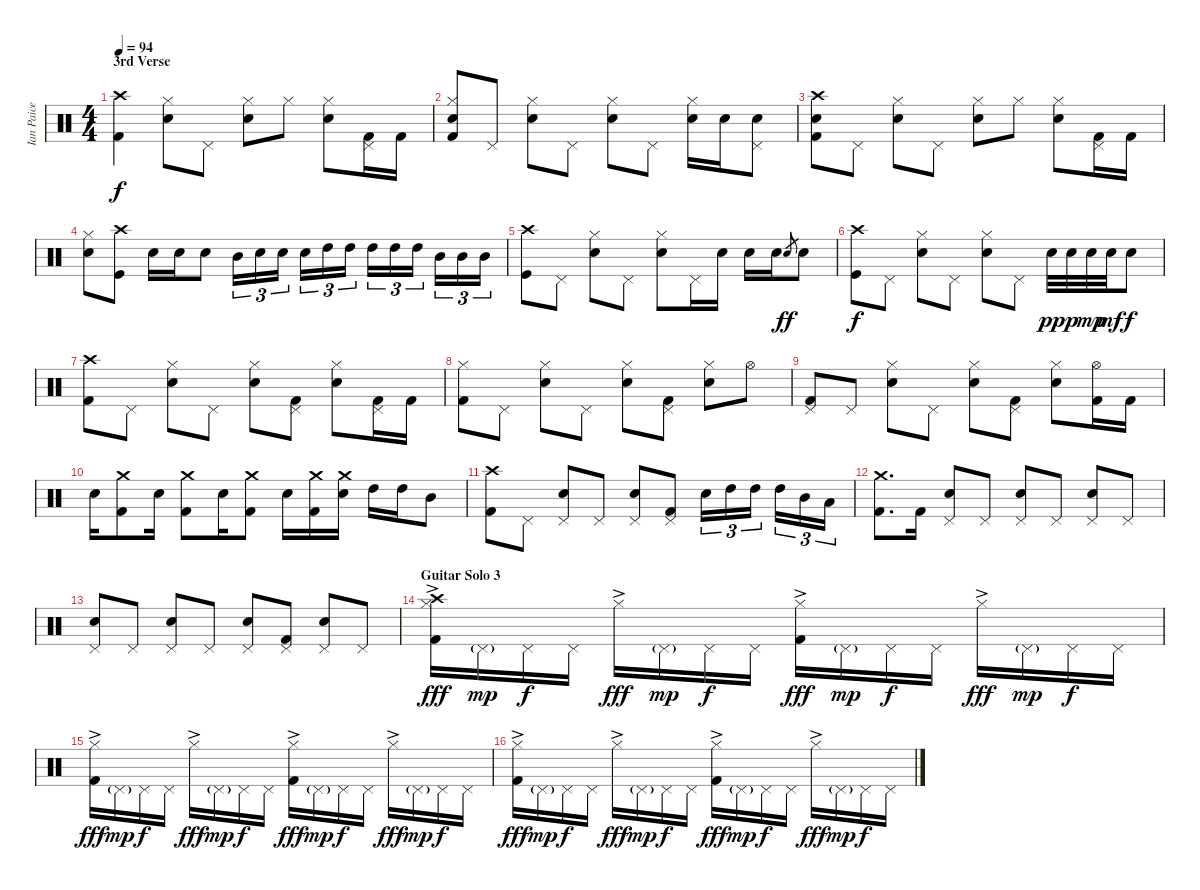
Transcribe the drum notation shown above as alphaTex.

\track ("Ian Paice (Drums)" "Ian Paice ") {instrument percussion}
\staff {score}
\articulation defaults
\ts (4 4)
\section ("" "3rd Verse")
\tempo 94
\clef neutral
\ks c
("Crash high (hit)" "Kick (hit) 2").4{dy f} ("Hi-Hat (closed)" "Electric Snare (hit)").8 "Pedal Hi-Hat (hit)".8 ("Hi-Hat (closed)" "Electric Snare (hit)").8 "Hi-Hat (closed)".8 ("Hi-Hat (closed)" "Electric Snare (hit)").8 ("Pedal Hi-Hat (hit)" "Kick (hit) 2").16 "Kick (hit) 2".16 |
("Hi-Hat (closed)" "Electric Snare (hit)" "Kick (hit) 2").8 "Pedal Hi-Hat (hit)".8 ("Hi-Hat (closed)" "Electric Snare (hit)").8 "Pedal Hi-Hat (hit)".8 ("Hi-Hat (closed)" "Electric Snare (hit)").8 "Pedal Hi-Hat (hit)".8 ("Hi-Hat (closed)" "Electric Snare (hit)").16 "Electric Snare (hit)".16 ("Pedal Hi-Hat (hit)" "Electric Snare (hit)").8 |
("Crash high (hit)" "Electric Snare (hit)" "Kick (hit) 2").8 "Pedal Hi-Hat (hit)".8 ("Hi-Hat (closed)" "Electric Snare (hit)").8 "Pedal Hi-Hat (hit)".8 ("Hi-Hat (closed)" "Electric Snare (hit)").8 "Hi-Hat (closed)".8 ("Hi-Hat (closed)" "Electric Snare (hit)").8 ("Pedal Hi-Hat (hit)" "Kick (hit) 2").16 "Kick (hit) 2".16 |
("Hi-Hat (closed)" "Electric Snare (hit)").8 ("Crash high (hit)" "Kick (hit)").8 "Electric Snare (hit)".16 "Electric Snare (hit)".16 "Electric Snare (hit)".8 "Mid Tom (hit)".16{tu (3 2)} "Electric Snare (hit)".16{tu (3 2)} "Electric Snare (hit)".16{tu (3 2)} "Electric Snare (hit)".16{tu (3 2)} "High Tom (hit)".16{tu (3 2)} "High Tom (hit)".16{tu (3 2)} "High Tom (hit)".16{tu (3 2)} "High Tom (hit)".16{tu (3 2)} "High Tom (hit)".16{tu (3 2)} "Mid Tom (hit)".16{tu (3 2)} "Mid Tom (hit)".16{tu (3 2)} "Mid Tom (hit)".16{tu (3 2)} |
("Crash high (hit)" "Kick (hit)").8 "Pedal Hi-Hat (hit)".8 ("Hi-Hat (closed)" "Electric Snare (hit)").8 "Pedal Hi-Hat (hit)".8 ("Hi-Hat (closed)" "Electric Snare (hit)").8 "Pedal Hi-Hat (hit)".16 "Electric Snare (hit)".16 "Electric Snare (hit)".16 "Electric Snare (hit)".16 "Electric Snare (hit)".8{gr dy ff} "Electric Snare (hit)".8 |
("Crash high (hit)" "Kick (hit)").8{dy f} "Pedal Hi-Hat (hit)".8 ("Hi-Hat (closed)" "Electric Snare (hit)").8 "Pedal Hi-Hat (hit)".8 ("Hi-Hat (closed)" "Electric Snare (hit)").8 "Pedal Hi-Hat (hit)".8 "Electric Snare (hit)".32{dy pp} "Electric Snare (hit)".32{dy p} "Electric Snare (hit)".32{dy mp} "Electric Snare (hit)".32{dy mf} "Electric Snare (hit)".8{dy f} |
("Crash high (hit)" "Kick (hit) 2").8 "Pedal Hi-Hat (hit)".8 ("Hi-Hat (closed)" "Electric Snare (hit)").8 "Pedal Hi-Hat (hit)".8 ("Hi-Hat (closed)" "Electric Snare (hit)").8 ("Pedal Hi-Hat (hit)" "Kick (hit) 2").8 ("Hi-Hat (closed)" "Electric Snare (hit)").8 ("Pedal Hi-Hat (hit)" "Kick (hit) 2").16 "Kick (hit) 2".16 |
("Hi-Hat (closed)" "Kick (hit) 2").8 "Pedal Hi-Hat (hit)".8 ("Hi-Hat (closed)" "Electric Snare (hit)").8 "Pedal Hi-Hat (hit)".8 ("Hi-Hat (closed)" "Electric Snare (hit)").8 ("Pedal Hi-Hat (hit)" "Kick (hit) 2").8 ("Hi-Hat (closed)" "Electric Snare (hit)").8 "Hi-Hat (open)".8 |
("Pedal Hi-Hat (hit)" "Kick (hit) 2").8 "Pedal Hi-Hat (hit)".8 ("Hi-Hat (closed)" "Electric Snare (hit)").8 "Pedal Hi-Hat (hit)".8 ("Hi-Hat (closed)" "Electric Snare (hit)").8 ("Pedal Hi-Hat (hit)" "Kick (hit) 2").8 ("Hi-Hat (closed)" "Electric Snare (hit)").8 ("Hi-Hat (open)" "Kick (hit) 2").16 "Kick (hit) 2".16 |
"Electric Snare (hit)".16 ("Crash medium (hit)" "Kick (hit) 2").8 "Electric Snare (hit)".16 ("Crash medium (hit)" "Kick (hit) 2").8 "Electric Snare (hit)".16 ("Crash medium (hit)" "Kick (hit) 2").8 "Electric Snare (hit)".16 ("Crash medium (hit)" "Kick (hit) 2").16 ("Crash medium (hit)" "Electric Snare (hit)").16 "High Tom (hit)".16 "High Tom (hit)".16 "Mid Tom (hit)".8 |
("Crash high (hit)" "Kick (hit) 2").8 "Pedal Hi-Hat (hit)".8 ("Pedal Hi-Hat (hit)" "Electric Snare (hit)").8 "Pedal Hi-Hat (hit)".8 ("Pedal Hi-Hat (hit)" "Electric Snare (hit)").8 ("Pedal Hi-Hat (hit)" "Kick (hit) 2").8 "Electric Snare (hit)".16{tu (3 2)} "High Tom (hit)".16{tu (3 2)} "High Tom (hit)".16{tu (3 2)} "High Tom (hit)".16{tu (3 2)} "Mid Tom (hit)".16{tu (3 2)} "Low Tom (hit)".16{tu (3 2)} |
("Crash medium (hit)" "Kick (hit) 2").8{d} "Kick (hit) 2".16 ("Pedal Hi-Hat (hit)" "Electric Snare (hit)").8 "Pedal Hi-Hat (hit)".8 ("Pedal Hi-Hat (hit)" "Electric Snare (hit)").8 "Pedal Hi-Hat (hit)".8 ("Pedal Hi-Hat (hit)" "Electric Snare (hit)").8 "Pedal Hi-Hat (hit)".8 |
("Pedal Hi-Hat (hit)" "Electric Snare (hit)").8 "Pedal Hi-Hat (hit)".8 ("Pedal Hi-Hat (hit)" "Electric Snare (hit)").8 "Pedal Hi-Hat (hit)".8 ("Pedal Hi-Hat (hit)" "Electric Snare (hit)").8 ("Pedal Hi-Hat (hit)" "Kick (hit) 2").8 ("Pedal Hi-Hat (hit)" "Electric Snare (hit)").8 "Pedal Hi-Hat (hit)".8 |
\section ("" "Guitar Solo 3")
("Crash high (hit)" "Hi-Hat (closed)"{ac} "Kick (hit) 2").16{dy fff} "Pedal Hi-Hat (hit)"{g}.16{dy mp} "Pedal Hi-Hat (hit)".16{dy f} "Pedal Hi-Hat (hit)".16 "Hi-Hat (closed)"{ac}.16{dy fff} "Pedal Hi-Hat (hit)"{g}.16{dy mp} "Pedal Hi-Hat (hit)".16{dy f} "Pedal Hi-Hat (hit)".16 ("Hi-Hat (closed)"{ac} "Kick (hit) 2").16{dy fff} "Pedal Hi-Hat (hit)"{g}.16{dy mp} "Pedal Hi-Hat (hit)".16{dy f} "Pedal Hi-Hat (hit)".16 "Hi-Hat (closed)"{ac}.16{dy fff} "Pedal Hi-Hat (hit)"{g}.16{dy mp} "Pedal Hi-Hat (hit)".16{dy f} "Pedal Hi-Hat (hit)".16 |
("Hi-Hat (closed)"{ac} "Kick (hit) 2").16{dy fff} "Pedal Hi-Hat (hit)"{g}.16{dy mp} "Pedal Hi-Hat (hit)".16{dy f} "Pedal Hi-Hat (hit)".16 "Hi-Hat (closed)"{ac}.16{dy fff} "Pedal Hi-Hat (hit)"{g}.16{dy mp} "Pedal Hi-Hat (hit)".16{dy f} "Pedal Hi-Hat (hit)".16 ("Hi-Hat (closed)"{ac} "Kick (hit) 2").16{dy fff} "Pedal Hi-Hat (hit)"{g}.16{dy mp} "Pedal Hi-Hat (hit)".16{dy f} "Pedal Hi-Hat (hit)".16 "Hi-Hat (closed)"{ac}.16{dy fff} "Pedal Hi-Hat (hit)"{g}.16{dy mp} "Pedal Hi-Hat (hit)".16{dy f} "Pedal Hi-Hat (hit)".16 |
("Hi-Hat (closed)"{ac} "Kick (hit) 2").16{dy fff} "Pedal Hi-Hat (hit)"{g}.16{dy mp} "Pedal Hi-Hat (hit)".16{dy f} "Pedal Hi-Hat (hit)".16 "Hi-Hat (closed)"{ac}.16{dy fff} "Pedal Hi-Hat (hit)"{g}.16{dy mp} "Pedal Hi-Hat (hit)".16{dy f} "Pedal Hi-Hat (hit)".16 ("Hi-Hat (closed)"{ac} "Kick (hit) 2").16{dy fff} "Pedal Hi-Hat (hit)"{g}.16{dy mp} "Pedal Hi-Hat (hit)".16{dy f} "Pedal Hi-Hat (hit)".16 "Hi-Hat (closed)"{ac}.16{dy fff} "Pedal Hi-Hat (hit)"{g}.16{dy mp} "Pedal Hi-Hat (hit)".16{dy f} "Pedal Hi-Hat (hit)".16
